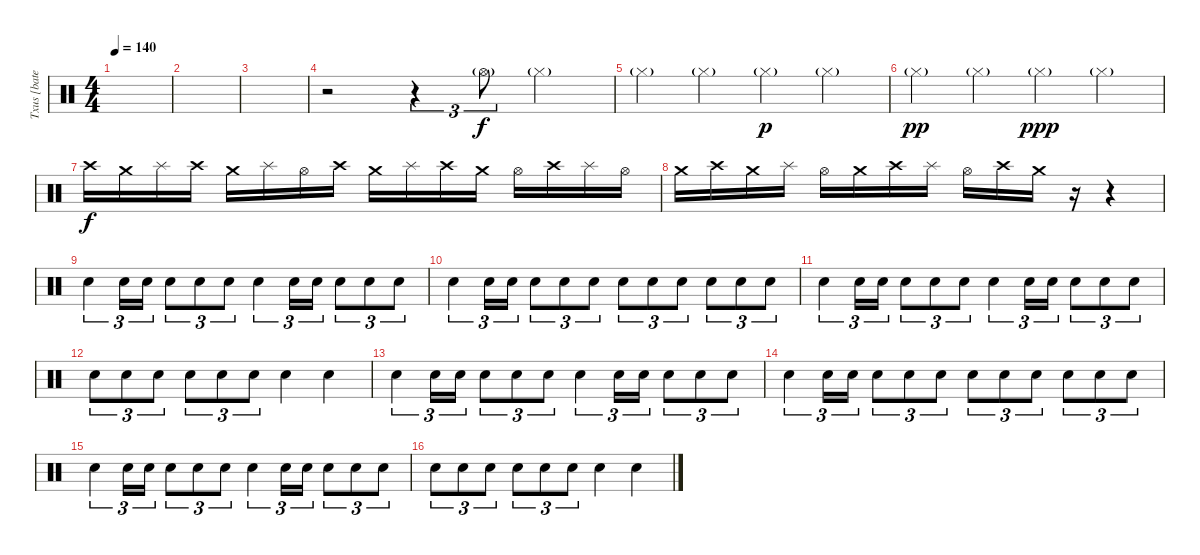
\track ("Txus [bateria]" "Txus [bate") {instrument percussion}
\staff {score}
\articulation defaults
\ts (4 4)
\tempo 140
\clef neutral
\ks c
|
|
|
r.2 r.4{tu (3 2)} "Hi-Hat (open)"{g}.8{tu (3 2)} "Hi-Hat (closed)"{g}.4 |
"Hi-Hat (closed)"{g}.4 "Hi-Hat (closed)"{g}.4 "Hi-Hat (closed)"{g}.4{dy p} "Hi-Hat (closed)"{g}.4 |
"Hi-Hat (closed)"{g}.4{dy pp} "Hi-Hat (closed)"{g}.4 "Hi-Hat (closed)"{g}.4{dy ppp} "Hi-Hat (closed)"{g}.4 |
"Crash high (hit)".16{dy f volume 4} "Crash medium (hit)".16{volume 7} "Splash (hit)".16 "Crash high (hit)".16 "Crash medium (hit)".16 "Splash (hit)".16 "Hi-Hat (open)".16 "Crash high (hit)".16 "Crash medium (hit)".16 "Splash (hit)".16 "Crash high (hit)".16 "Crash medium (hit)".16 "Hi-Hat (open)".16 "Crash high (hit)".16 "Splash (hit)".16 "Hi-Hat (open)".16 |
"Crash medium (hit)".16 "Crash high (hit)".16 "Crash medium (hit)".16 "Splash (hit)".16 "Hi-Hat (open)".16 "Crash medium (hit)".16 "Crash high (hit)".16 "Splash (hit)".16 "Hi-Hat (open)".16 "Crash high (hit)".16 "Crash medium (hit)".16 r.16 r.4 |
"Snare (hit) 2".4{tu (3 2) volume 10} "Snare (hit) 2".16{tu (3 2)} "Snare (hit) 2".16{tu (3 2)} "Snare (hit) 2".8{tu (3 2)} "Snare (hit) 2".8{tu (3 2)} "Snare (hit) 2".8{tu (3 2)} "Snare (hit) 2".4{tu (3 2)} "Snare (hit) 2".16{tu (3 2)} "Snare (hit) 2".16{tu (3 2)} "Snare (hit) 2".8{tu (3 2)} "Snare (hit) 2".8{tu (3 2)} "Snare (hit) 2".8{tu (3 2)} |
"Snare (hit) 2".4{tu (3 2)} "Snare (hit) 2".16{tu (3 2)} "Snare (hit) 2".16{tu (3 2)} "Snare (hit) 2".8{tu (3 2)} "Snare (hit) 2".8{tu (3 2)} "Snare (hit) 2".8{tu (3 2)} "Snare (hit) 2".8{tu (3 2)} "Snare (hit) 2".8{tu (3 2)} "Snare (hit) 2".8{tu (3 2)} "Snare (hit) 2".8{tu (3 2)} "Snare (hit) 2".8{tu (3 2)} "Snare (hit) 2".8{tu (3 2)} |
"Snare (hit) 2".4{tu (3 2)} "Snare (hit) 2".16{tu (3 2)} "Snare (hit) 2".16{tu (3 2)} "Snare (hit) 2".8{tu (3 2)} "Snare (hit) 2".8{tu (3 2)} "Snare (hit) 2".8{tu (3 2)} "Snare (hit) 2".4{tu (3 2)} "Snare (hit) 2".16{tu (3 2)} "Snare (hit) 2".16{tu (3 2)} "Snare (hit) 2".8{tu (3 2)} "Snare (hit) 2".8{tu (3 2)} "Snare (hit) 2".8{tu (3 2)} |
"Snare (hit) 2".8{tu (3 2)} "Snare (hit) 2".8{tu (3 2)} "Snare (hit) 2".8{tu (3 2)} "Snare (hit) 2".8{tu (3 2)} "Snare (hit) 2".8{tu (3 2)} "Snare (hit) 2".8{tu (3 2)} "Snare (hit) 2".4 "Snare (hit) 2".4 |
"Snare (hit) 2".4{tu (3 2) volume 10} "Snare (hit) 2".16{tu (3 2)} "Snare (hit) 2".16{tu (3 2)} "Snare (hit) 2".8{tu (3 2)} "Snare (hit) 2".8{tu (3 2)} "Snare (hit) 2".8{tu (3 2)} "Snare (hit) 2".4{tu (3 2)} "Snare (hit) 2".16{tu (3 2)} "Snare (hit) 2".16{tu (3 2)} "Snare (hit) 2".8{tu (3 2)} "Snare (hit) 2".8{tu (3 2)} "Snare (hit) 2".8{tu (3 2)} |
"Snare (hit) 2".4{tu (3 2)} "Snare (hit) 2".16{tu (3 2)} "Snare (hit) 2".16{tu (3 2)} "Snare (hit) 2".8{tu (3 2)} "Snare (hit) 2".8{tu (3 2)} "Snare (hit) 2".8{tu (3 2)} "Snare (hit) 2".8{tu (3 2)} "Snare (hit) 2".8{tu (3 2)} "Snare (hit) 2".8{tu (3 2)} "Snare (hit) 2".8{tu (3 2)} "Snare (hit) 2".8{tu (3 2)} "Snare (hit) 2".8{tu (3 2)} |
"Snare (hit) 2".4{tu (3 2)} "Snare (hit) 2".16{tu (3 2)} "Snare (hit) 2".16{tu (3 2)} "Snare (hit) 2".8{tu (3 2)} "Snare (hit) 2".8{tu (3 2)} "Snare (hit) 2".8{tu (3 2)} "Snare (hit) 2".4{tu (3 2)} "Snare (hit) 2".16{tu (3 2)} "Snare (hit) 2".16{tu (3 2)} "Snare (hit) 2".8{tu (3 2)} "Snare (hit) 2".8{tu (3 2)} "Snare (hit) 2".8{tu (3 2)} |
"Snare (hit) 2".8{tu (3 2)} "Snare (hit) 2".8{tu (3 2)} "Snare (hit) 2".8{tu (3 2)} "Snare (hit) 2".8{tu (3 2)} "Snare (hit) 2".8{tu (3 2)} "Snare (hit) 2".8{tu (3 2)} "Snare (hit) 2".4 "Snare (hit) 2".4{volume 13}
